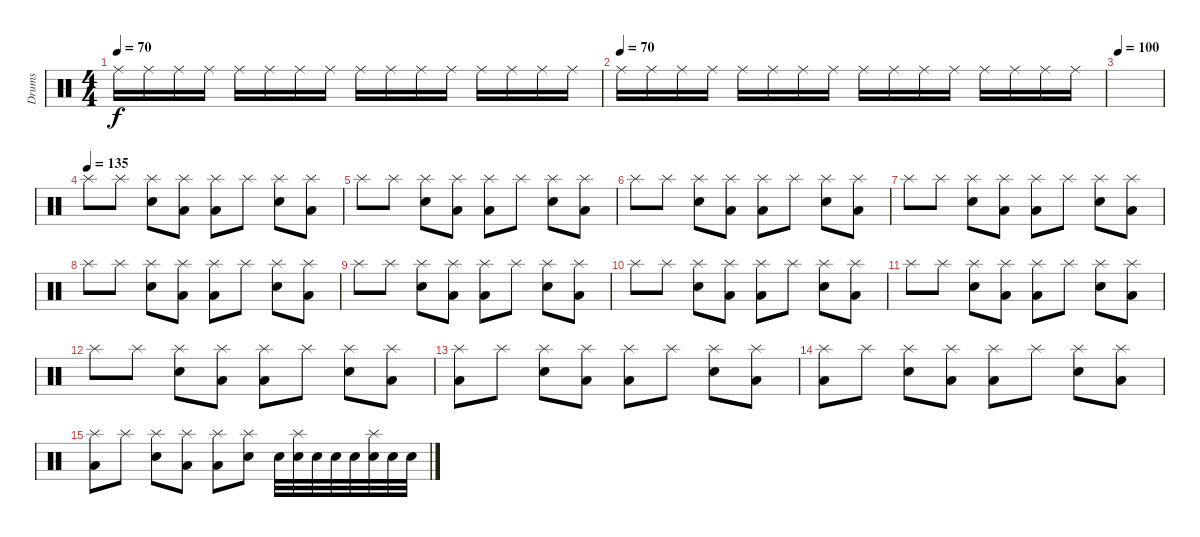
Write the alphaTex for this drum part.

\track ("Drums" "Drums") {instrument percussion}
\staff {score}
\articulation defaults
\ts (4 4)
\tempo 70
\clef neutral
\ks c "Ride (middle)".16{dy f} "Ride (middle)".16 "Ride (middle)".16 "Ride (middle)".16 "Ride (middle)".16 "Ride (middle)".16 "Ride (middle)".16 "Ride (middle)".16 "Ride (middle)".16 "Ride (middle)".16 "Ride (middle)".16 "Ride (middle)".16 "Ride (middle)".16 "Ride (middle)".16 "Ride (middle)".16 "Ride (middle)".16
|
\tempo (70)
"Ride (middle)".16 "Ride (middle)".16 "Ride (middle)".16 "Ride (middle)".16 "Ride (middle)".16 "Ride (middle)".16 "Ride (middle)".16 "Ride (middle)".16 "Ride (middle)".16 "Ride (middle)".16 "Ride (middle)".16 "Ride (middle)".16 "Ride (middle)".16 "Ride (middle)".16 "Ride (middle)".16 "Ride (middle)".16 |
\tempo 100
|
\tempo (135)
"Splash (hit)".8 "Splash (hit)".8 ("Splash (hit)" "Snare (hit) 2").8 ("Splash (hit)" "Low Floor Tom (hit)").8 ("Splash (hit)" "Low Floor Tom (hit)").8 "Splash (hit)".8 ("Splash (hit)" "Snare (hit) 2").8 ("Splash (hit)" "Low Floor Tom (hit)").8 |
"Splash (hit)".8 "Splash (hit)".8 ("Splash (hit)" "Snare (hit) 2").8 ("Splash (hit)" "Low Floor Tom (hit)").8 ("Splash (hit)" "Low Floor Tom (hit)").8 "Splash (hit)".8 ("Splash (hit)" "Snare (hit) 2").8 ("Splash (hit)" "Low Floor Tom (hit)").8 |
"Splash (hit)".8 "Splash (hit)".8 ("Splash (hit)" "Snare (hit) 2").8 ("Splash (hit)" "Low Floor Tom (hit)").8 ("Splash (hit)" "Low Floor Tom (hit)").8 "Splash (hit)".8 ("Splash (hit)" "Snare (hit) 2").8 ("Splash (hit)" "Low Floor Tom (hit)").8 |
"Splash (hit)".8 "Splash (hit)".8 ("Splash (hit)" "Snare (hit) 2").8 ("Splash (hit)" "Low Floor Tom (hit)").8 ("Splash (hit)" "Low Floor Tom (hit)").8 "Splash (hit)".8 ("Splash (hit)" "Snare (hit) 2").8 ("Splash (hit)" "Low Floor Tom (hit)").8 |
"Splash (hit)".8 "Splash (hit)".8 ("Splash (hit)" "Snare (hit) 2").8 ("Splash (hit)" "Low Floor Tom (hit)").8 ("Splash (hit)" "Low Floor Tom (hit)").8 "Splash (hit)".8 ("Splash (hit)" "Snare (hit) 2").8 ("Splash (hit)" "Low Floor Tom (hit)").8 |
"Splash (hit)".8 "Splash (hit)".8 ("Splash (hit)" "Snare (hit) 2").8 ("Splash (hit)" "Low Floor Tom (hit)").8 ("Splash (hit)" "Low Floor Tom (hit)").8 "Splash (hit)".8 ("Splash (hit)" "Snare (hit) 2").8 ("Splash (hit)" "Low Floor Tom (hit)").8 |
"Splash (hit)".8 "Splash (hit)".8 ("Splash (hit)" "Snare (hit) 2").8 ("Splash (hit)" "Low Floor Tom (hit)").8 ("Splash (hit)" "Low Floor Tom (hit)").8 "Splash (hit)".8 ("Splash (hit)" "Snare (hit) 2").8 ("Splash (hit)" "Low Floor Tom (hit)").8 |
"Splash (hit)".8 "Splash (hit)".8 ("Splash (hit)" "Snare (hit) 2").8 ("Splash (hit)" "Low Floor Tom (hit)").8 ("Splash (hit)" "Low Floor Tom (hit)").8 "Splash (hit)".8 ("Splash (hit)" "Snare (hit) 2").8 ("Splash (hit)" "Low Floor Tom (hit)").8 |
"Splash (hit)".8 "Splash (hit)".8 ("Splash (hit)" "Snare (hit) 2").8 ("Splash (hit)" "Low Floor Tom (hit)").8 ("Splash (hit)" "Low Floor Tom (hit)").8 "Splash (hit)".8 ("Splash (hit)" "Snare (hit) 2").8 ("Splash (hit)" "Low Floor Tom (hit)").8 |
("Splash (hit)" "Low Floor Tom (hit)").8 "Splash (hit)".8 ("Splash (hit)" "Snare (hit) 2").8 ("Splash (hit)" "Low Floor Tom (hit)").8 ("Splash (hit)" "Low Floor Tom (hit)").8 "Splash (hit)".8 ("Splash (hit)" "Snare (hit) 2").8 ("Splash (hit)" "Low Floor Tom (hit)").8 |
("Splash (hit)" "Low Floor Tom (hit)").8 "Splash (hit)".8 ("Splash (hit)" "Snare (hit) 2").8 ("Splash (hit)" "Low Floor Tom (hit)").8 ("Splash (hit)" "Low Floor Tom (hit)").8 "Splash (hit)".8 ("Splash (hit)" "Snare (hit) 2").8 ("Splash (hit)" "Low Floor Tom (hit)").8 |
("Splash (hit)" "Low Floor Tom (hit)").8 "Splash (hit)".8 ("Splash (hit)" "Snare (hit) 2").8 ("Splash (hit)" "Low Floor Tom (hit)").8 ("Splash (hit)" "Low Floor Tom (hit)").8 ("Splash (hit)" "Snare (hit) 2").8 "Snare (hit) 2".32 ("Splash (hit)" "Snare (hit) 2").32 "Snare (hit) 2".32 "Snare (hit) 2".32 "Snare (hit) 2".32 ("Splash (hit)" "Snare (hit) 2").32 "Snare (hit) 2".32 "Snare (hit) 2".32
